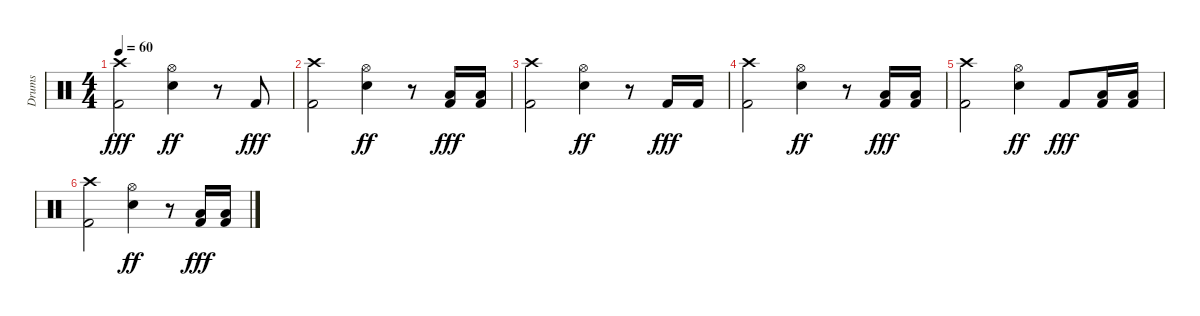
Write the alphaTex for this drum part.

\track ("Drums" "Drums") {instrument percussion}
\staff {score}
\articulation defaults
\ts (4 4)
\tempo 60
\clef neutral
\ks c
("Crash high (hit)" "Kick (hit) 2").2{dy fff} ("Hi-Hat (open)" "Electric Snare (hit)").4{dy ff} r.8 "Kick (hit) 2".8{dy fff} |
("Crash high (hit)" "Kick (hit) 2").2 ("Hi-Hat (open)" "Electric Snare (hit)").4{dy ff} r.8 ("Low Floor Tom (hit)" "Kick (hit) 2").16{dy fff} ("Low Floor Tom (hit)" "Kick (hit) 2").16 |
("Crash high (hit)" "Kick (hit) 2").2 ("Hi-Hat (open)" "Electric Snare (hit)").4{dy ff} r.8 "Kick (hit) 2".16{dy fff} "Kick (hit) 2".16 |
("Crash high (hit)" "Kick (hit) 2").2 ("Hi-Hat (open)" "Electric Snare (hit)").4{dy ff} r.8 ("Low Floor Tom (hit)" "Kick (hit) 2").16{dy fff} ("Low Floor Tom (hit)" "Kick (hit) 2").16 |
("Crash high (hit)" "Kick (hit) 2").2 ("Hi-Hat (open)" "Electric Snare (hit)").4{dy ff} "Kick (hit) 2".8{dy fff} ("Low Floor Tom (hit)" "Kick (hit) 2").16 ("Low Floor Tom (hit)" "Kick (hit) 2").16 |
("Crash high (hit)" "Kick (hit) 2").2 ("Hi-Hat (open)" "Electric Snare (hit)").4{dy ff} r.8 ("Low Floor Tom (hit)" "Kick (hit) 2").16{dy fff} ("Low Floor Tom (hit)" "Kick (hit) 2").16
